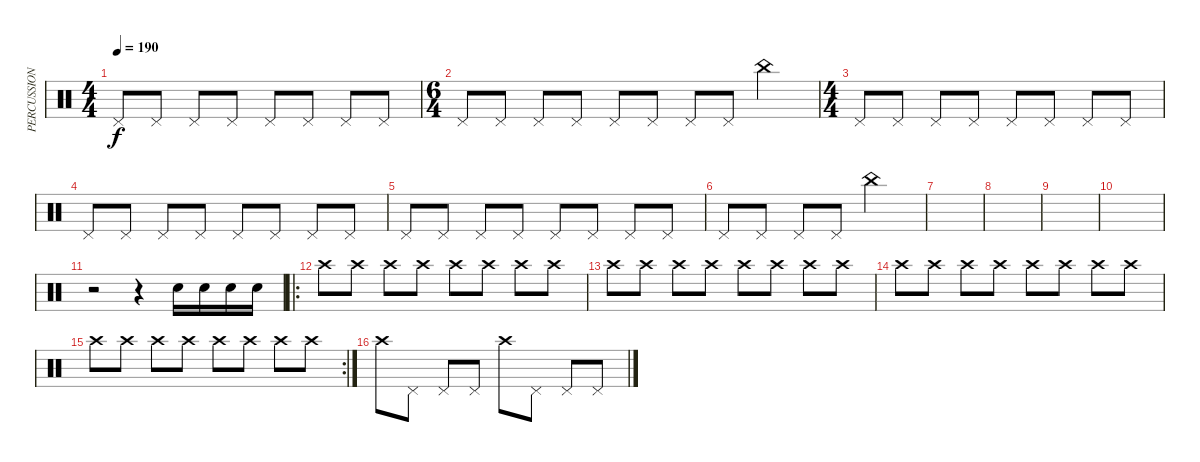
\track ("PERCUSSION" "PERCUSSION") {instrument percussion}
\staff {score}
\articulation defaults
\ts (4 4)
\tempo 190
\clef neutral
\ks c "Pedal Hi-Hat (hit)".8{dy f} "Pedal Hi-Hat (hit)".8 "Pedal Hi-Hat (hit)".8 "Pedal Hi-Hat (hit)".8 "Pedal Hi-Hat (hit)".8 "Pedal Hi-Hat (hit)".8 "Pedal Hi-Hat (hit)".8 "Pedal Hi-Hat (hit)".8
|
\ts (6 4)
"Pedal Hi-Hat (hit)".8 "Pedal Hi-Hat (hit)".8 "Pedal Hi-Hat (hit)".8 "Pedal Hi-Hat (hit)".8 "Pedal Hi-Hat (hit)".8 "Pedal Hi-Hat (hit)".8 "Pedal Hi-Hat (hit)".8 "Pedal Hi-Hat (hit)".8 "China (hit)".2 |
\ts (4 4)
"Pedal Hi-Hat (hit)".8 "Pedal Hi-Hat (hit)".8 "Pedal Hi-Hat (hit)".8 "Pedal Hi-Hat (hit)".8 "Pedal Hi-Hat (hit)".8 "Pedal Hi-Hat (hit)".8 "Pedal Hi-Hat (hit)".8 "Pedal Hi-Hat (hit)".8 |
"Pedal Hi-Hat (hit)".8 "Pedal Hi-Hat (hit)".8 "Pedal Hi-Hat (hit)".8 "Pedal Hi-Hat (hit)".8 "Pedal Hi-Hat (hit)".8 "Pedal Hi-Hat (hit)".8 "Pedal Hi-Hat (hit)".8 "Pedal Hi-Hat (hit)".8 |
"Pedal Hi-Hat (hit)".8 "Pedal Hi-Hat (hit)".8 "Pedal Hi-Hat (hit)".8 "Pedal Hi-Hat (hit)".8 "Pedal Hi-Hat (hit)".8 "Pedal Hi-Hat (hit)".8 "Pedal Hi-Hat (hit)".8 "Pedal Hi-Hat (hit)".8 |
"Pedal Hi-Hat (hit)".8 "Pedal Hi-Hat (hit)".8 "Pedal Hi-Hat (hit)".8 "Pedal Hi-Hat (hit)".8 "China (hit)".2 |
|
|
|
|
r.2 r.4 "Electric Snare (hit)".16 "Electric Snare (hit)".16 "Electric Snare (hit)".16 "Electric Snare (hit)".16 |
\ro "Crash high (hit)".8 "Crash high (hit)".8 "Crash high (hit)".8 "Crash high (hit)".8 "Crash high (hit)".8 "Crash high (hit)".8 "Crash high (hit)".8 "Crash high (hit)".8
|
"Crash high (hit)".8 "Crash high (hit)".8 "Crash high (hit)".8 "Crash high (hit)".8 "Crash high (hit)".8 "Crash high (hit)".8 "Crash high (hit)".8 "Crash high (hit)".8 |
"Crash high (hit)".8 "Crash high (hit)".8 "Crash high (hit)".8 "Crash high (hit)".8 "Crash high (hit)".8 "Crash high (hit)".8 "Crash high (hit)".8 "Crash high (hit)".8 |
\rc 2 "Crash high (hit)".8 "Crash high (hit)".8 "Crash high (hit)".8 "Crash high (hit)".8 "Crash high (hit)".8 "Crash high (hit)".8 "Crash high (hit)".8 "Crash high (hit)".8
|
"Crash high (hit)".8 "Pedal Hi-Hat (hit)".8 "Pedal Hi-Hat (hit)".8 "Pedal Hi-Hat (hit)".8 "Crash high (hit)".8 "Pedal Hi-Hat (hit)".8 "Pedal Hi-Hat (hit)".8 "Pedal Hi-Hat (hit)".8
